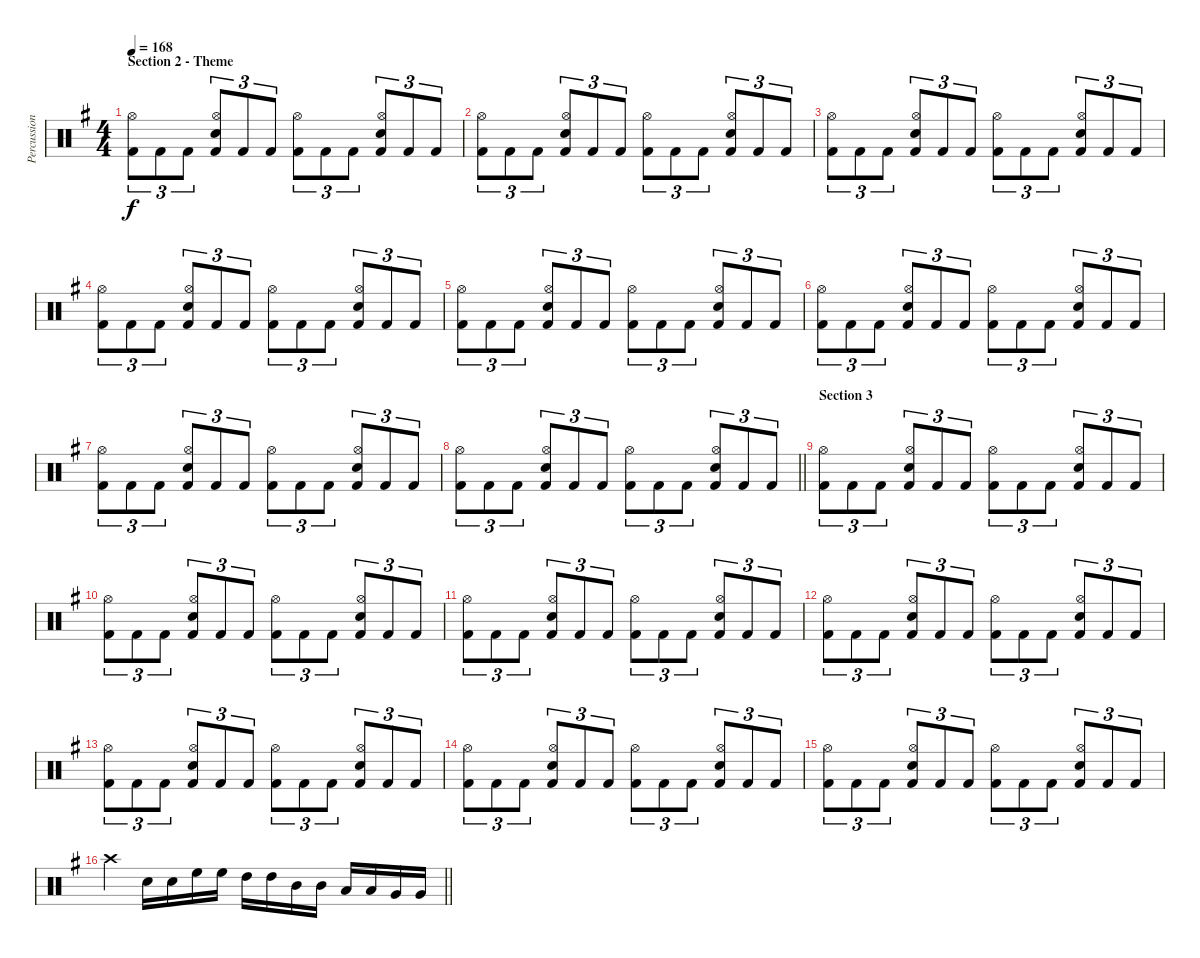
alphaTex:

\track ("Percussion" "Percussion") {instrument percussion}
\staff {score}
\articulation defaults
\ts (4 4)
\section ("" "Section 2 - Theme")
\tempo 168
\clef neutral
\ks eminor
("Kick (hit) 2" "Hi-Hat (open)").8{tu (3 2) dy f} "Kick (hit) 2".8{tu (3 2)} "Kick (hit) 2".8{tu (3 2)} ("Kick (hit) 2" "Electric Snare (hit)" "Hi-Hat (open)").8{tu (3 2)} "Kick (hit) 2".8{tu (3 2)} "Kick (hit) 2".8{tu (3 2)} ("Kick (hit) 2" "Hi-Hat (open)").8{tu (3 2)} "Kick (hit) 2".8{tu (3 2)} "Kick (hit) 2".8{tu (3 2)} ("Kick (hit) 2" "Electric Snare (hit)" "Hi-Hat (open)").8{tu (3 2)} "Kick (hit) 2".8{tu (3 2)} "Kick (hit) 2".8{tu (3 2)} |
("Kick (hit) 2" "Hi-Hat (open)").8{tu (3 2)} "Kick (hit) 2".8{tu (3 2)} "Kick (hit) 2".8{tu (3 2)} ("Kick (hit) 2" "Electric Snare (hit)" "Hi-Hat (open)").8{tu (3 2)} "Kick (hit) 2".8{tu (3 2)} "Kick (hit) 2".8{tu (3 2)} ("Kick (hit) 2" "Hi-Hat (open)").8{tu (3 2)} "Kick (hit) 2".8{tu (3 2)} "Kick (hit) 2".8{tu (3 2)} ("Kick (hit) 2" "Electric Snare (hit)" "Hi-Hat (open)").8{tu (3 2)} "Kick (hit) 2".8{tu (3 2)} "Kick (hit) 2".8{tu (3 2)} |
("Kick (hit) 2" "Hi-Hat (open)").8{tu (3 2)} "Kick (hit) 2".8{tu (3 2)} "Kick (hit) 2".8{tu (3 2)} ("Kick (hit) 2" "Electric Snare (hit)" "Hi-Hat (open)").8{tu (3 2)} "Kick (hit) 2".8{tu (3 2)} "Kick (hit) 2".8{tu (3 2)} ("Kick (hit) 2" "Hi-Hat (open)").8{tu (3 2)} "Kick (hit) 2".8{tu (3 2)} "Kick (hit) 2".8{tu (3 2)} ("Kick (hit) 2" "Electric Snare (hit)" "Hi-Hat (open)").8{tu (3 2)} "Kick (hit) 2".8{tu (3 2)} "Kick (hit) 2".8{tu (3 2)} |
("Kick (hit) 2" "Hi-Hat (open)").8{tu (3 2)} "Kick (hit) 2".8{tu (3 2)} "Kick (hit) 2".8{tu (3 2)} ("Kick (hit) 2" "Electric Snare (hit)" "Hi-Hat (open)").8{tu (3 2)} "Kick (hit) 2".8{tu (3 2)} "Kick (hit) 2".8{tu (3 2)} ("Kick (hit) 2" "Hi-Hat (open)").8{tu (3 2)} "Kick (hit) 2".8{tu (3 2)} "Kick (hit) 2".8{tu (3 2)} ("Kick (hit) 2" "Electric Snare (hit)" "Hi-Hat (open)").8{tu (3 2)} "Kick (hit) 2".8{tu (3 2)} "Kick (hit) 2".8{tu (3 2)} |
("Kick (hit) 2" "Hi-Hat (open)").8{tu (3 2)} "Kick (hit) 2".8{tu (3 2)} "Kick (hit) 2".8{tu (3 2)} ("Kick (hit) 2" "Electric Snare (hit)" "Hi-Hat (open)").8{tu (3 2)} "Kick (hit) 2".8{tu (3 2)} "Kick (hit) 2".8{tu (3 2)} ("Kick (hit) 2" "Hi-Hat (open)").8{tu (3 2)} "Kick (hit) 2".8{tu (3 2)} "Kick (hit) 2".8{tu (3 2)} ("Kick (hit) 2" "Electric Snare (hit)" "Hi-Hat (open)").8{tu (3 2)} "Kick (hit) 2".8{tu (3 2)} "Kick (hit) 2".8{tu (3 2)} |
("Kick (hit) 2" "Hi-Hat (open)").8{tu (3 2)} "Kick (hit) 2".8{tu (3 2)} "Kick (hit) 2".8{tu (3 2)} ("Kick (hit) 2" "Electric Snare (hit)" "Hi-Hat (open)").8{tu (3 2)} "Kick (hit) 2".8{tu (3 2)} "Kick (hit) 2".8{tu (3 2)} ("Kick (hit) 2" "Hi-Hat (open)").8{tu (3 2)} "Kick (hit) 2".8{tu (3 2)} "Kick (hit) 2".8{tu (3 2)} ("Kick (hit) 2" "Electric Snare (hit)" "Hi-Hat (open)").8{tu (3 2)} "Kick (hit) 2".8{tu (3 2)} "Kick (hit) 2".8{tu (3 2)} |
("Kick (hit) 2" "Hi-Hat (open)").8{tu (3 2)} "Kick (hit) 2".8{tu (3 2)} "Kick (hit) 2".8{tu (3 2)} ("Kick (hit) 2" "Electric Snare (hit)" "Hi-Hat (open)").8{tu (3 2)} "Kick (hit) 2".8{tu (3 2)} "Kick (hit) 2".8{tu (3 2)} ("Kick (hit) 2" "Hi-Hat (open)").8{tu (3 2)} "Kick (hit) 2".8{tu (3 2)} "Kick (hit) 2".8{tu (3 2)} ("Kick (hit) 2" "Electric Snare (hit)" "Hi-Hat (open)").8{tu (3 2)} "Kick (hit) 2".8{tu (3 2)} "Kick (hit) 2".8{tu (3 2)} |
\barLineRight lightlight
("Kick (hit) 2" "Hi-Hat (open)").8{tu (3 2)} "Kick (hit) 2".8{tu (3 2)} "Kick (hit) 2".8{tu (3 2)} ("Kick (hit) 2" "Electric Snare (hit)" "Hi-Hat (open)").8{tu (3 2)} "Kick (hit) 2".8{tu (3 2)} "Kick (hit) 2".8{tu (3 2)} ("Kick (hit) 2" "Hi-Hat (open)").8{tu (3 2)} "Kick (hit) 2".8{tu (3 2)} "Kick (hit) 2".8{tu (3 2)} ("Kick (hit) 2" "Electric Snare (hit)" "Hi-Hat (open)").8{tu (3 2)} "Kick (hit) 2".8{tu (3 2)} "Kick (hit) 2".8{tu (3 2)} |
\section ("" "Section 3")
("Kick (hit) 2" "Hi-Hat (open)").8{tu (3 2)} "Kick (hit) 2".8{tu (3 2)} "Kick (hit) 2".8{tu (3 2)} ("Kick (hit) 2" "Electric Snare (hit)" "Hi-Hat (open)").8{tu (3 2)} "Kick (hit) 2".8{tu (3 2)} "Kick (hit) 2".8{tu (3 2)} ("Kick (hit) 2" "Hi-Hat (open)").8{tu (3 2)} "Kick (hit) 2".8{tu (3 2)} "Kick (hit) 2".8{tu (3 2)} ("Kick (hit) 2" "Electric Snare (hit)" "Hi-Hat (open)").8{tu (3 2)} "Kick (hit) 2".8{tu (3 2)} "Kick (hit) 2".8{tu (3 2)} |
("Kick (hit) 2" "Hi-Hat (open)").8{tu (3 2)} "Kick (hit) 2".8{tu (3 2)} "Kick (hit) 2".8{tu (3 2)} ("Kick (hit) 2" "Electric Snare (hit)" "Hi-Hat (open)").8{tu (3 2)} "Kick (hit) 2".8{tu (3 2)} "Kick (hit) 2".8{tu (3 2)} ("Kick (hit) 2" "Hi-Hat (open)").8{tu (3 2)} "Kick (hit) 2".8{tu (3 2)} "Kick (hit) 2".8{tu (3 2)} ("Kick (hit) 2" "Electric Snare (hit)" "Hi-Hat (open)").8{tu (3 2)} "Kick (hit) 2".8{tu (3 2)} "Kick (hit) 2".8{tu (3 2)} |
("Kick (hit) 2" "Hi-Hat (open)").8{tu (3 2)} "Kick (hit) 2".8{tu (3 2)} "Kick (hit) 2".8{tu (3 2)} ("Kick (hit) 2" "Electric Snare (hit)" "Hi-Hat (open)").8{tu (3 2)} "Kick (hit) 2".8{tu (3 2)} "Kick (hit) 2".8{tu (3 2)} ("Kick (hit) 2" "Hi-Hat (open)").8{tu (3 2)} "Kick (hit) 2".8{tu (3 2)} "Kick (hit) 2".8{tu (3 2)} ("Kick (hit) 2" "Electric Snare (hit)" "Hi-Hat (open)").8{tu (3 2)} "Kick (hit) 2".8{tu (3 2)} "Kick (hit) 2".8{tu (3 2)} |
("Kick (hit) 2" "Hi-Hat (open)").8{tu (3 2)} "Kick (hit) 2".8{tu (3 2)} "Kick (hit) 2".8{tu (3 2)} ("Kick (hit) 2" "Electric Snare (hit)" "Hi-Hat (open)").8{tu (3 2)} "Kick (hit) 2".8{tu (3 2)} "Kick (hit) 2".8{tu (3 2)} ("Kick (hit) 2" "Hi-Hat (open)").8{tu (3 2)} "Kick (hit) 2".8{tu (3 2)} "Kick (hit) 2".8{tu (3 2)} ("Kick (hit) 2" "Electric Snare (hit)" "Hi-Hat (open)").8{tu (3 2)} "Kick (hit) 2".8{tu (3 2)} "Kick (hit) 2".8{tu (3 2)} |
("Kick (hit) 2" "Hi-Hat (open)").8{tu (3 2)} "Kick (hit) 2".8{tu (3 2)} "Kick (hit) 2".8{tu (3 2)} ("Kick (hit) 2" "Electric Snare (hit)" "Hi-Hat (open)").8{tu (3 2)} "Kick (hit) 2".8{tu (3 2)} "Kick (hit) 2".8{tu (3 2)} ("Kick (hit) 2" "Hi-Hat (open)").8{tu (3 2)} "Kick (hit) 2".8{tu (3 2)} "Kick (hit) 2".8{tu (3 2)} ("Kick (hit) 2" "Electric Snare (hit)" "Hi-Hat (open)").8{tu (3 2)} "Kick (hit) 2".8{tu (3 2)} "Kick (hit) 2".8{tu (3 2)} |
("Kick (hit) 2" "Hi-Hat (open)").8{tu (3 2)} "Kick (hit) 2".8{tu (3 2)} "Kick (hit) 2".8{tu (3 2)} ("Kick (hit) 2" "Electric Snare (hit)" "Hi-Hat (open)").8{tu (3 2)} "Kick (hit) 2".8{tu (3 2)} "Kick (hit) 2".8{tu (3 2)} ("Kick (hit) 2" "Hi-Hat (open)").8{tu (3 2)} "Kick (hit) 2".8{tu (3 2)} "Kick (hit) 2".8{tu (3 2)} ("Kick (hit) 2" "Electric Snare (hit)" "Hi-Hat (open)").8{tu (3 2)} "Kick (hit) 2".8{tu (3 2)} "Kick (hit) 2".8{tu (3 2)} |
("Kick (hit) 2" "Hi-Hat (open)").8{tu (3 2)} "Kick (hit) 2".8{tu (3 2)} "Kick (hit) 2".8{tu (3 2)} ("Kick (hit) 2" "Electric Snare (hit)" "Hi-Hat (open)").8{tu (3 2)} "Kick (hit) 2".8{tu (3 2)} "Kick (hit) 2".8{tu (3 2)} ("Kick (hit) 2" "Hi-Hat (open)").8{tu (3 2)} "Kick (hit) 2".8{tu (3 2)} "Kick (hit) 2".8{tu (3 2)} ("Kick (hit) 2" "Electric Snare (hit)" "Hi-Hat (open)").8{tu (3 2)} "Kick (hit) 2".8{tu (3 2)} "Kick (hit) 2".8{tu (3 2)} |
\barLineRight lightlight "Crash high (hit)".4 "Electric Snare (hit)".16 "Electric Snare (hit)".16 "High Floor Tom (hit)".16 "High Floor Tom (hit)".16 "High Tom (hit)".16 "High Tom (hit)".16 "Mid Tom (hit)".16 "Mid Tom (hit)".16 "Low Tom (hit)".16 "Low Tom (hit)".16 "Very Low Tom (hit)".16 "Very Low Tom (hit)".16
